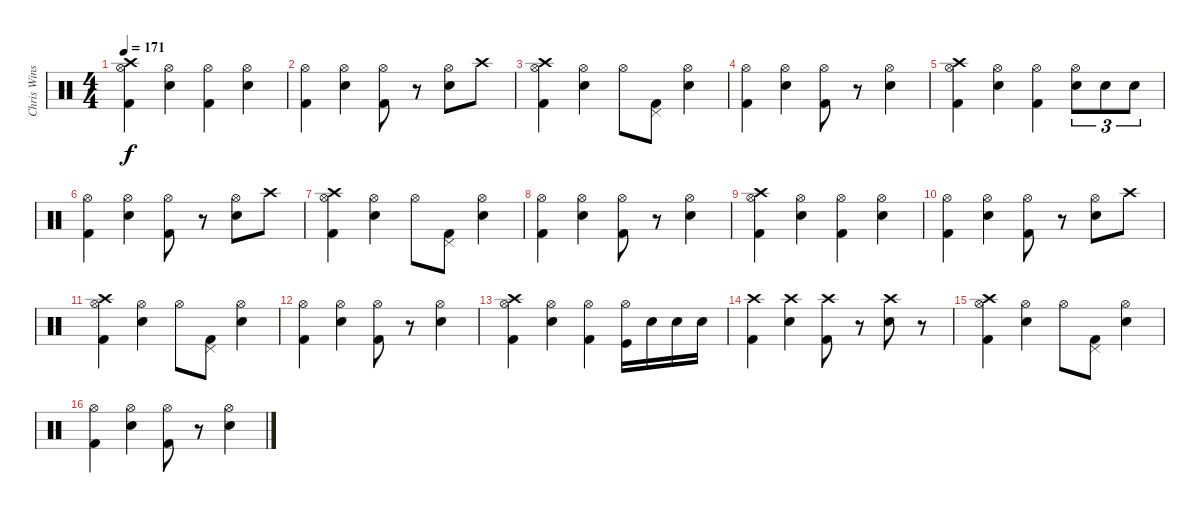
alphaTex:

\track ("Chris Winship (Drums)" "Chris Wins") {instrument percussion}
\staff {score}
\articulation defaults
\ts (4 4)
\tempo 171
\clef neutral
\ks c
("Crash high (hit)" "Hi-Hat (open)" "Kick (hit) 2").4{dy f} ("Hi-Hat (open)" "Snare (hit) 2").4 ("Hi-Hat (open)" "Kick (hit) 2").4 ("Hi-Hat (open)" "Snare (hit) 2").4 |
("Hi-Hat (open)" "Kick (hit) 2").4 ("Hi-Hat (open)" "Snare (hit) 2").4 ("Hi-Hat (open)" "Kick (hit) 2").8 r.8 ("Hi-Hat (open)" "Snare (hit) 2").8 "Crash high (hit)".8 |
("Crash high (hit)" "Hi-Hat (open)" "Kick (hit) 2").4 ("Hi-Hat (open)" "Snare (hit) 2").4 "Hi-Hat (open)".8 ("Pedal Hi-Hat (hit)" "Kick (hit) 2").8 ("Hi-Hat (open)" "Snare (hit) 2").4 |
("Hi-Hat (open)" "Kick (hit) 2").4 ("Hi-Hat (open)" "Snare (hit) 2").4 ("Hi-Hat (open)" "Kick (hit) 2").8 r.8 ("Hi-Hat (open)" "Snare (hit) 2").4 |
("Crash high (hit)" "Hi-Hat (open)" "Kick (hit) 2").4 ("Hi-Hat (open)" "Snare (hit) 2").4 ("Hi-Hat (open)" "Kick (hit) 2").4 ("Hi-Hat (open)" "Snare (hit) 2").8{tu (3 2)} "Snare (hit) 2".8{tu (3 2)} "Snare (hit) 2".8{tu (3 2)} |
("Hi-Hat (open)" "Kick (hit) 2").4 ("Hi-Hat (open)" "Snare (hit) 2").4 ("Hi-Hat (open)" "Kick (hit) 2").8 r.8 ("Hi-Hat (open)" "Snare (hit) 2").8 "Crash high (hit)".8 |
("Crash high (hit)" "Hi-Hat (open)" "Kick (hit) 2").4 ("Hi-Hat (open)" "Snare (hit) 2").4 "Hi-Hat (open)".8 ("Pedal Hi-Hat (hit)" "Kick (hit) 2").8 ("Hi-Hat (open)" "Snare (hit) 2").4 |
("Hi-Hat (open)" "Kick (hit) 2").4 ("Hi-Hat (open)" "Snare (hit) 2").4 ("Hi-Hat (open)" "Kick (hit) 2").8 r.8 ("Hi-Hat (open)" "Snare (hit) 2").4 |
("Crash high (hit)" "Hi-Hat (open)" "Kick (hit) 2").4 ("Hi-Hat (open)" "Snare (hit) 2").4 ("Hi-Hat (open)" "Kick (hit) 2").4 ("Hi-Hat (open)" "Snare (hit) 2").4 |
("Hi-Hat (open)" "Kick (hit) 2").4 ("Hi-Hat (open)" "Snare (hit) 2").4 ("Hi-Hat (open)" "Kick (hit) 2").8 r.8 ("Hi-Hat (open)" "Snare (hit) 2").8 "Crash high (hit)".8 |
("Crash high (hit)" "Hi-Hat (open)" "Kick (hit) 2").4 ("Hi-Hat (open)" "Snare (hit) 2").4 "Hi-Hat (open)".8 ("Pedal Hi-Hat (hit)" "Kick (hit) 2").8 ("Hi-Hat (open)" "Snare (hit) 2").4 |
("Hi-Hat (open)" "Kick (hit) 2").4 ("Hi-Hat (open)" "Snare (hit) 2").4 ("Hi-Hat (open)" "Kick (hit) 2").8 r.8 ("Hi-Hat (open)" "Snare (hit) 2").4 |
("Crash high (hit)" "Hi-Hat (open)" "Kick (hit) 2").4 ("Hi-Hat (open)" "Snare (hit) 2").4 ("Hi-Hat (open)" "Kick (hit) 2").4 ("Hi-Hat (open)" "Kick (hit)").16 "Snare (hit) 2".16 "Snare (hit) 2".16 "Snare (hit) 2".16 |
("Crash high (hit)" "Kick (hit) 2").4 ("Crash high (hit)" "Snare (hit) 2").4 ("Crash high (hit)" "Kick (hit) 2").8 r.8 ("Crash high (hit)" "Snare (hit) 2").8 r.8 |
("Crash high (hit)" "Hi-Hat (open)" "Kick (hit) 2").4 ("Hi-Hat (open)" "Snare (hit) 2").4 "Hi-Hat (open)".8 ("Pedal Hi-Hat (hit)" "Kick (hit) 2").8 ("Hi-Hat (open)" "Snare (hit) 2").4 |
("Hi-Hat (open)" "Kick (hit) 2").4 ("Hi-Hat (open)" "Snare (hit) 2").4 ("Hi-Hat (open)" "Kick (hit) 2").8 r.8 ("Hi-Hat (open)" "Snare (hit) 2").4
